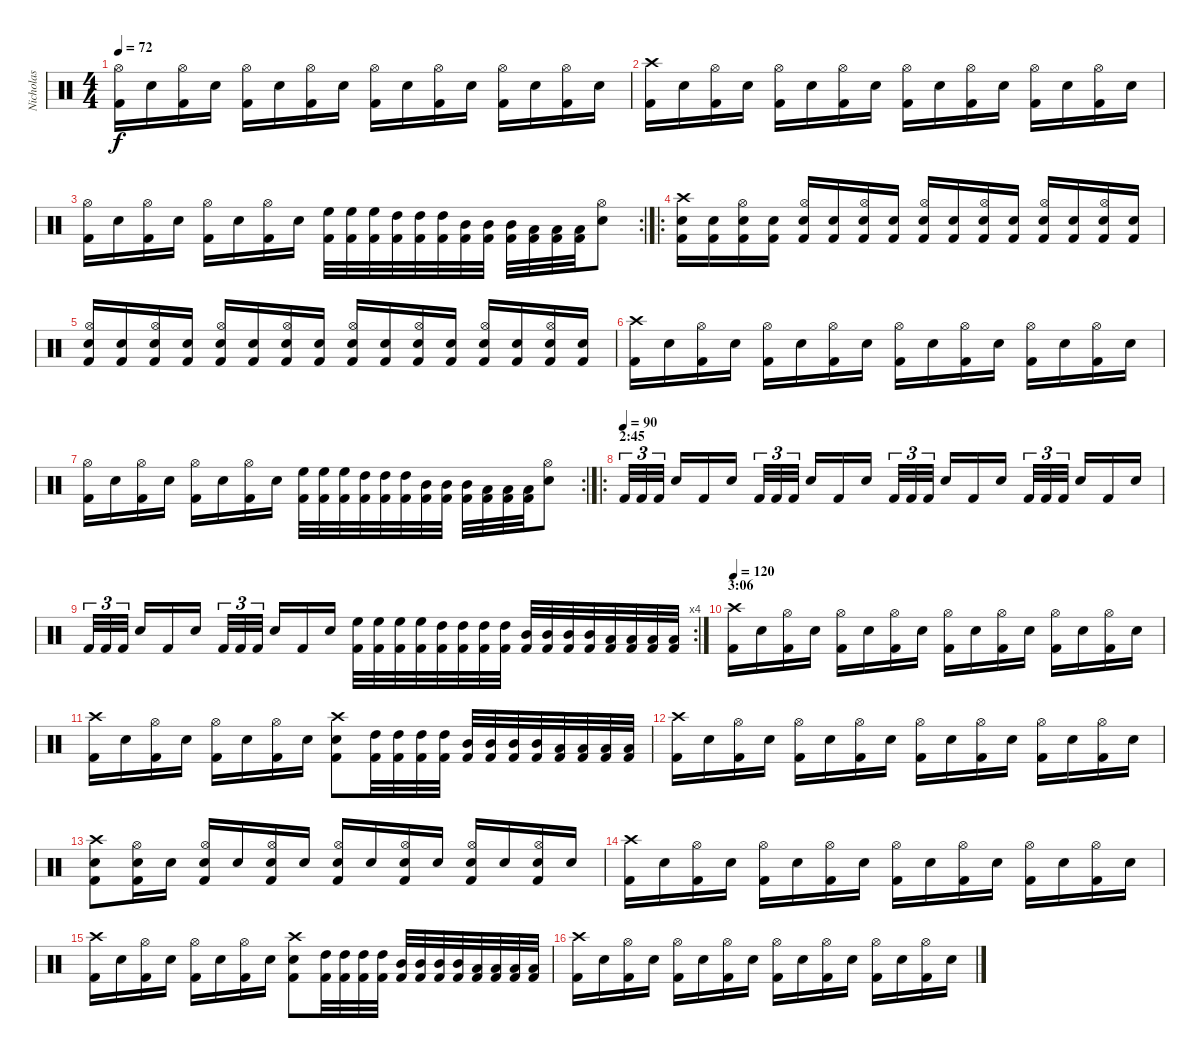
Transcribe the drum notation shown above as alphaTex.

\track ("Nicholas" "Nicholas") {instrument percussion}
\staff {score}
\articulation defaults
\ts (4 4)
\tempo 72
\clef neutral
\ks c
("Kick (hit) 2" "Hi-Hat (open)").16{dy f} "Snare (hit) 2".16 ("Kick (hit) 2" "Hi-Hat (open)").16 "Snare (hit) 2".16 ("Kick (hit) 2" "Hi-Hat (open)").16 "Snare (hit) 2".16 ("Kick (hit) 2" "Hi-Hat (open)").16 "Snare (hit) 2".16 ("Kick (hit) 2" "Hi-Hat (open)").16 "Snare (hit) 2".16 ("Kick (hit) 2" "Hi-Hat (open)").16 "Snare (hit) 2".16 ("Kick (hit) 2" "Hi-Hat (open)").16 "Snare (hit) 2".16 ("Kick (hit) 2" "Hi-Hat (open)").16 "Snare (hit) 2".16 |
("Kick (hit) 2" "Crash high (hit)").16 "Snare (hit) 2".16 ("Kick (hit) 2" "Hi-Hat (open)").16 "Snare (hit) 2".16 ("Kick (hit) 2" "Hi-Hat (open)").16 "Snare (hit) 2".16 ("Kick (hit) 2" "Hi-Hat (open)").16 "Snare (hit) 2".16 ("Kick (hit) 2" "Hi-Hat (open)").16 "Snare (hit) 2".16 ("Kick (hit) 2" "Hi-Hat (open)").16 "Snare (hit) 2".16 ("Kick (hit) 2" "Hi-Hat (open)").16 "Snare (hit) 2".16 ("Kick (hit) 2" "Hi-Hat (open)").16 "Snare (hit) 2".16 |
\rc 2
("Kick (hit) 2" "Hi-Hat (open)").16 "Snare (hit) 2".16 ("Kick (hit) 2" "Hi-Hat (open)").16 "Snare (hit) 2".16 ("Kick (hit) 2" "Hi-Hat (open)").16 "Snare (hit) 2".16 ("Kick (hit) 2" "Hi-Hat (open)").16 "Snare (hit) 2".16 ("Kick (hit) 2" "High Floor Tom (hit)").32 ("Kick (hit) 2" "High Floor Tom (hit)").32 ("Kick (hit) 2" "High Floor Tom (hit)").32 ("Kick (hit) 2" "High Tom (hit)").32 ("Kick (hit) 2" "High Tom (hit)").32 ("Kick (hit) 2" "High Tom (hit)").32 ("Kick (hit) 2" "Mid Tom (hit)").32 ("Kick (hit) 2" "Mid Tom (hit)").32 ("Kick (hit) 2" "Mid Tom (hit)").32 ("Kick (hit) 2" "Low Tom (hit)").32 ("Kick (hit) 2" "Low Tom (hit)").32 ("Kick (hit) 2" "Low Tom (hit)").32 ("Snare (hit) 2" "Hi-Hat (open)").8 |
\ro
("Kick (hit) 2" "Snare (hit) 2" "Crash high (hit)").16 ("Kick (hit) 2" "Snare (hit) 2").16 ("Kick (hit) 2" "Snare (hit) 2" "Hi-Hat (open)").16 ("Kick (hit) 2" "Snare (hit) 2").16 ("Kick (hit) 2" "Snare (hit) 2" "Hi-Hat (open)").16 ("Kick (hit) 2" "Snare (hit) 2").16 ("Kick (hit) 2" "Snare (hit) 2" "Hi-Hat (open)").16 ("Kick (hit) 2" "Snare (hit) 2").16 ("Kick (hit) 2" "Snare (hit) 2" "Hi-Hat (open)").16 ("Kick (hit) 2" "Snare (hit) 2").16 ("Kick (hit) 2" "Snare (hit) 2" "Hi-Hat (open)").16 ("Kick (hit) 2" "Snare (hit) 2").16 ("Kick (hit) 2" "Snare (hit) 2" "Hi-Hat (open)").16 ("Kick (hit) 2" "Snare (hit) 2").16 ("Kick (hit) 2" "Snare (hit) 2" "Hi-Hat (open)").16 ("Kick (hit) 2" "Snare (hit) 2").16 |
("Kick (hit) 2" "Snare (hit) 2" "Hi-Hat (open)").16 ("Kick (hit) 2" "Snare (hit) 2").16 ("Kick (hit) 2" "Snare (hit) 2" "Hi-Hat (open)").16 ("Kick (hit) 2" "Snare (hit) 2").16 ("Kick (hit) 2" "Snare (hit) 2" "Hi-Hat (open)").16 ("Kick (hit) 2" "Snare (hit) 2").16 ("Kick (hit) 2" "Snare (hit) 2" "Hi-Hat (open)").16 ("Kick (hit) 2" "Snare (hit) 2").16 ("Kick (hit) 2" "Snare (hit) 2" "Hi-Hat (open)").16 ("Kick (hit) 2" "Snare (hit) 2").16 ("Kick (hit) 2" "Snare (hit) 2" "Hi-Hat (open)").16 ("Kick (hit) 2" "Snare (hit) 2").16 ("Kick (hit) 2" "Snare (hit) 2" "Hi-Hat (open)").16 ("Kick (hit) 2" "Snare (hit) 2").16 ("Kick (hit) 2" "Snare (hit) 2" "Hi-Hat (open)").16 ("Kick (hit) 2" "Snare (hit) 2").16 |
("Kick (hit) 2" "Crash high (hit)").16 "Snare (hit) 2".16 ("Kick (hit) 2" "Hi-Hat (open)").16 "Snare (hit) 2".16 ("Kick (hit) 2" "Hi-Hat (open)").16 "Snare (hit) 2".16 ("Kick (hit) 2" "Hi-Hat (open)").16 "Snare (hit) 2".16 ("Kick (hit) 2" "Hi-Hat (open)").16 "Snare (hit) 2".16 ("Kick (hit) 2" "Hi-Hat (open)").16 "Snare (hit) 2".16 ("Kick (hit) 2" "Hi-Hat (open)").16 "Snare (hit) 2".16 ("Kick (hit) 2" "Hi-Hat (open)").16 "Snare (hit) 2".16 |
\rc 2
("Kick (hit) 2" "Hi-Hat (open)").16 "Snare (hit) 2".16 ("Kick (hit) 2" "Hi-Hat (open)").16 "Snare (hit) 2".16 ("Kick (hit) 2" "Hi-Hat (open)").16 "Snare (hit) 2".16 ("Kick (hit) 2" "Hi-Hat (open)").16 "Snare (hit) 2".16 ("Kick (hit) 2" "High Floor Tom (hit)").32 ("Kick (hit) 2" "High Floor Tom (hit)").32 ("Kick (hit) 2" "High Floor Tom (hit)").32 ("Kick (hit) 2" "High Tom (hit)").32 ("Kick (hit) 2" "High Tom (hit)").32 ("Kick (hit) 2" "High Tom (hit)").32 ("Kick (hit) 2" "Mid Tom (hit)").32 ("Kick (hit) 2" "Mid Tom (hit)").32 ("Kick (hit) 2" "Mid Tom (hit)").32 ("Kick (hit) 2" "Low Tom (hit)").32 ("Kick (hit) 2" "Low Tom (hit)").32 ("Kick (hit) 2" "Low Tom (hit)").32 ("Snare (hit) 2" "Hi-Hat (open)").8 |
\ro
\section ("" "2:45")
\tempo (90)
"Kick (hit) 2".32{tu (3 2)} "Kick (hit) 2".32{tu (3 2)} "Kick (hit) 2".32{tu (3 2)} "Snare (hit) 2".16 "Kick (hit) 2".16 "Snare (hit) 2".16 "Kick (hit) 2".32{tu (3 2)} "Kick (hit) 2".32{tu (3 2)} "Kick (hit) 2".32{tu (3 2)} "Snare (hit) 2".16 "Kick (hit) 2".16 "Snare (hit) 2".16 "Kick (hit) 2".32{tu (3 2)} "Kick (hit) 2".32{tu (3 2)} "Kick (hit) 2".32{tu (3 2)} "Snare (hit) 2".16 "Kick (hit) 2".16 "Snare (hit) 2".16 "Kick (hit) 2".32{tu (3 2)} "Kick (hit) 2".32{tu (3 2)} "Kick (hit) 2".32{tu (3 2)} "Snare (hit) 2".16 "Kick (hit) 2".16 "Snare (hit) 2".16 |
\rc 4 "Kick (hit) 2".32{tu (3 2)} "Kick (hit) 2".32{tu (3 2)} "Kick (hit) 2".32{tu (3 2)} "Snare (hit) 2".16 "Kick (hit) 2".16 "Snare (hit) 2".16 "Kick (hit) 2".32{tu (3 2)} "Kick (hit) 2".32{tu (3 2)} "Kick (hit) 2".32{tu (3 2)} "Snare (hit) 2".16 "Kick (hit) 2".16 "Snare (hit) 2".16
("Kick (hit) 2" "High Floor Tom (hit)").32 ("Kick (hit) 2" "High Floor Tom (hit)").32 ("Kick (hit) 2" "High Floor Tom (hit)").32 ("Kick (hit) 2" "High Floor Tom (hit)").32 ("Kick (hit) 2" "High Tom (hit)").32 ("Kick (hit) 2" "High Tom (hit)").32 ("Kick (hit) 2" "High Tom (hit)").32 ("Kick (hit) 2" "High Tom (hit)").32 ("Kick (hit) 2" "Mid Tom (hit)").32 ("Kick (hit) 2" "Mid Tom (hit)").32 ("Kick (hit) 2" "Mid Tom (hit)").32 ("Kick (hit) 2" "Mid Tom (hit)").32 ("Kick (hit) 2" "Low Tom (hit)").32 ("Kick (hit) 2" "Low Tom (hit)").32 ("Kick (hit) 2" "Low Tom (hit)").32 ("Kick (hit) 2" "Low Tom (hit)").32 |
\section ("" "3:06")
\tempo 120
("Kick (hit) 2" "Crash high (hit)").16 "Snare (hit) 2".16 ("Kick (hit) 2" "Hi-Hat (open)").16 "Snare (hit) 2".16 ("Kick (hit) 2" "Hi-Hat (open)").16 "Snare (hit) 2".16 ("Kick (hit) 2" "Hi-Hat (open)").16 "Snare (hit) 2".16 ("Kick (hit) 2" "Hi-Hat (open)").16 "Snare (hit) 2".16 ("Kick (hit) 2" "Hi-Hat (open)").16 "Snare (hit) 2".16 ("Kick (hit) 2" "Hi-Hat (open)").16 "Snare (hit) 2".16 ("Kick (hit) 2" "Hi-Hat (open)").16 "Snare (hit) 2".16 |
("Kick (hit) 2" "Crash high (hit)").16 "Snare (hit) 2".16 ("Kick (hit) 2" "Hi-Hat (open)").16 "Snare (hit) 2".16 ("Kick (hit) 2" "Hi-Hat (open)").16 "Snare (hit) 2".16 ("Kick (hit) 2" "Hi-Hat (open)").16 "Snare (hit) 2".16 ("Kick (hit) 2" "Snare (hit) 2" "Crash high (hit)").8 ("Kick (hit) 2" "High Tom (hit)").32 ("Kick (hit) 2" "High Tom (hit)").32 ("Kick (hit) 2" "High Tom (hit)").32 ("Kick (hit) 2" "High Tom (hit)").32 ("Kick (hit) 2" "Mid Tom (hit)").32 ("Kick (hit) 2" "Mid Tom (hit)").32 ("Kick (hit) 2" "Mid Tom (hit)").32 ("Kick (hit) 2" "Mid Tom (hit)").32 ("Kick (hit) 2" "Low Tom (hit)").32 ("Kick (hit) 2" "Low Tom (hit)").32 ("Kick (hit) 2" "Low Tom (hit)").32 ("Kick (hit) 2" "Low Tom (hit)").32 |
("Kick (hit) 2" "Crash high (hit)").16 "Snare (hit) 2".16 ("Kick (hit) 2" "Hi-Hat (open)").16 "Snare (hit) 2".16 ("Kick (hit) 2" "Hi-Hat (open)").16 "Snare (hit) 2".16 ("Kick (hit) 2" "Hi-Hat (open)").16 "Snare (hit) 2".16 ("Kick (hit) 2" "Hi-Hat (open)").16 "Snare (hit) 2".16 ("Kick (hit) 2" "Hi-Hat (open)").16 "Snare (hit) 2".16 ("Kick (hit) 2" "Hi-Hat (open)").16 "Snare (hit) 2".16 ("Kick (hit) 2" "Hi-Hat (open)").16 "Snare (hit) 2".16 |
("Kick (hit) 2" "Snare (hit) 2" "Crash high (hit)").8 ("Kick (hit) 2" "Snare (hit) 2" "Hi-Hat (open)").16 "Snare (hit) 2".16 ("Kick (hit) 2" "Snare (hit) 2" "Hi-Hat (open)").16 "Snare (hit) 2".16 ("Kick (hit) 2" "Snare (hit) 2" "Hi-Hat (open)").16 "Snare (hit) 2".16 ("Kick (hit) 2" "Snare (hit) 2" "Hi-Hat (open)").16 "Snare (hit) 2".16 ("Kick (hit) 2" "Snare (hit) 2" "Hi-Hat (open)").16 "Snare (hit) 2".16 ("Kick (hit) 2" "Snare (hit) 2" "Hi-Hat (open)").16 "Snare (hit) 2".16 ("Kick (hit) 2" "Snare (hit) 2" "Hi-Hat (open)").16 "Snare (hit) 2".16 |
("Kick (hit) 2" "Crash high (hit)").16 "Snare (hit) 2".16 ("Kick (hit) 2" "Hi-Hat (open)").16 "Snare (hit) 2".16 ("Kick (hit) 2" "Hi-Hat (open)").16 "Snare (hit) 2".16 ("Kick (hit) 2" "Hi-Hat (open)").16 "Snare (hit) 2".16 ("Kick (hit) 2" "Hi-Hat (open)").16 "Snare (hit) 2".16 ("Kick (hit) 2" "Hi-Hat (open)").16 "Snare (hit) 2".16 ("Kick (hit) 2" "Hi-Hat (open)").16 "Snare (hit) 2".16 ("Kick (hit) 2" "Hi-Hat (open)").16 "Snare (hit) 2".16 |
("Kick (hit) 2" "Crash high (hit)").16 "Snare (hit) 2".16 ("Kick (hit) 2" "Hi-Hat (open)").16 "Snare (hit) 2".16 ("Kick (hit) 2" "Hi-Hat (open)").16 "Snare (hit) 2".16 ("Kick (hit) 2" "Hi-Hat (open)").16 "Snare (hit) 2".16 ("Kick (hit) 2" "Snare (hit) 2" "Crash high (hit)").8 ("Kick (hit) 2" "High Tom (hit)").32 ("Kick (hit) 2" "High Tom (hit)").32 ("Kick (hit) 2" "High Tom (hit)").32 ("Kick (hit) 2" "High Tom (hit)").32 ("Kick (hit) 2" "Mid Tom (hit)").32 ("Kick (hit) 2" "Mid Tom (hit)").32 ("Kick (hit) 2" "Mid Tom (hit)").32 ("Kick (hit) 2" "Mid Tom (hit)").32 ("Kick (hit) 2" "Low Tom (hit)").32 ("Kick (hit) 2" "Low Tom (hit)").32 ("Kick (hit) 2" "Low Tom (hit)").32 ("Kick (hit) 2" "Low Tom (hit)").32 |
("Kick (hit) 2" "Crash high (hit)").16 "Snare (hit) 2".16 ("Kick (hit) 2" "Hi-Hat (open)").16 "Snare (hit) 2".16 ("Kick (hit) 2" "Hi-Hat (open)").16 "Snare (hit) 2".16 ("Kick (hit) 2" "Hi-Hat (open)").16 "Snare (hit) 2".16 ("Kick (hit) 2" "Hi-Hat (open)").16 "Snare (hit) 2".16 ("Kick (hit) 2" "Hi-Hat (open)").16 "Snare (hit) 2".16 ("Kick (hit) 2" "Hi-Hat (open)").16 "Snare (hit) 2".16 ("Kick (hit) 2" "Hi-Hat (open)").16 "Snare (hit) 2".16
